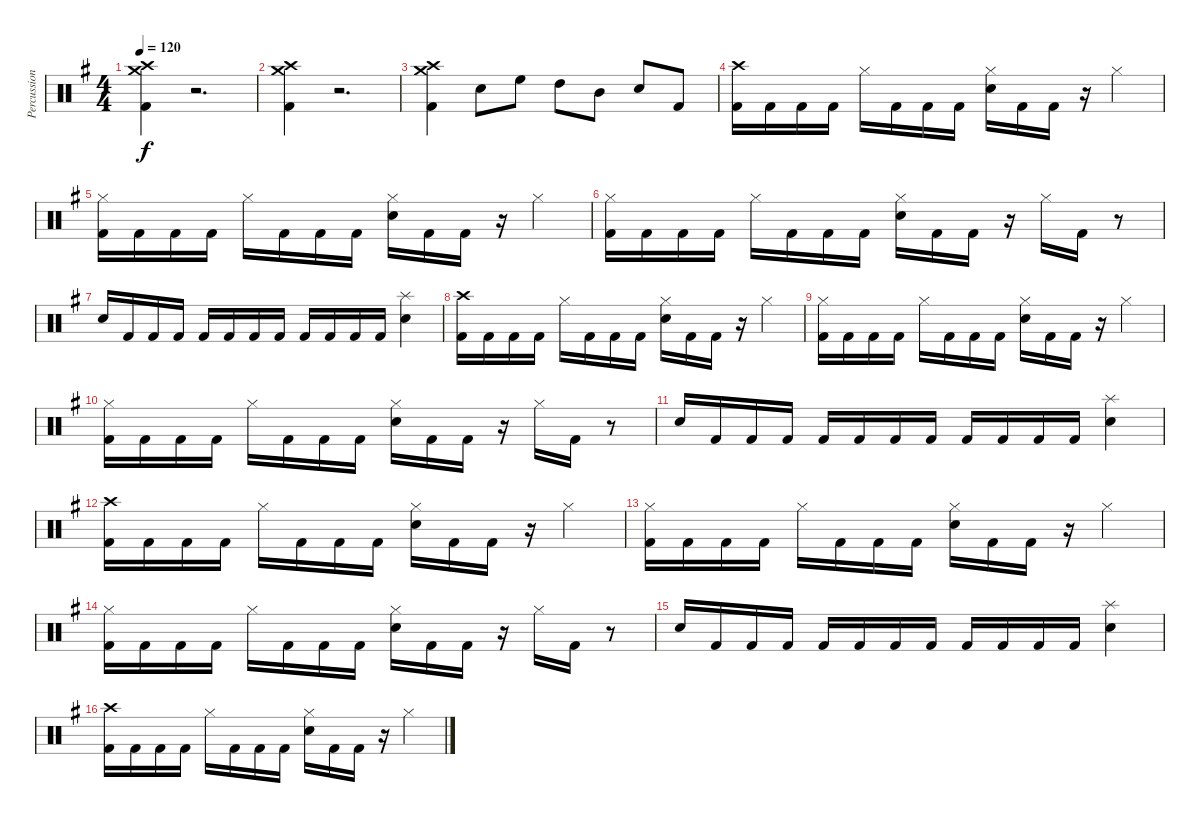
\track ("Percussion" "Percussion") {instrument percussion}
\staff {score}
\articulation defaults
\ts (4 4)
\tempo 120
\clef neutral
\ks g
("Crash high (hit)" "Crash medium (hit)" "Kick (hit) 2").4{dy f} r.2{d} |
("Crash high (hit)" "Crash medium (hit)" "Kick (hit) 2").4 r.2{d} |
("Crash high (hit)" "Crash medium (hit)" "Kick (hit) 2").4 "Snare (hit) 2".8 "High Floor Tom (hit)".8 "High Tom (hit)".8 "Mid Tom (hit)".8 "Snare (hit) 2".8 "Kick (hit) 2".8 |
("Crash high (hit)" "Kick (hit) 2").16 "Kick (hit) 2".16 "Kick (hit) 2".16 "Kick (hit) 2".16 "Hi-Hat (closed)".16 "Kick (hit) 2".16 "Kick (hit) 2".16 "Kick (hit) 2".16 ("Hi-Hat (closed)" "Snare (hit) 2").16 "Kick (hit) 2".16 "Kick (hit) 2".16 r.16 "Hi-Hat (closed)".4 |
("Hi-Hat (closed)" "Kick (hit) 2").16 "Kick (hit) 2".16 "Kick (hit) 2".16 "Kick (hit) 2".16 "Hi-Hat (closed)".16 "Kick (hit) 2".16 "Kick (hit) 2".16 "Kick (hit) 2".16 ("Hi-Hat (closed)" "Snare (hit) 2").16 "Kick (hit) 2".16 "Kick (hit) 2".16 r.16 "Hi-Hat (closed)".4 |
("Hi-Hat (closed)" "Kick (hit) 2").16 "Kick (hit) 2".16 "Kick (hit) 2".16 "Kick (hit) 2".16 "Hi-Hat (closed)".16 "Kick (hit) 2".16 "Kick (hit) 2".16 "Kick (hit) 2".16 ("Hi-Hat (closed)" "Snare (hit) 2").16 "Kick (hit) 2".16 "Kick (hit) 2".16 r.16 "Hi-Hat (closed)".16 "Kick (hit) 2".16 r.8 |
"Snare (hit) 2".16 "Kick (hit) 2".16 "Kick (hit) 2".16 "Kick (hit) 2".16 "Kick (hit) 2".16 "Kick (hit) 2".16 "Kick (hit) 2".16 "Kick (hit) 2".16 "Kick (hit) 2".16 "Kick (hit) 2".16 "Kick (hit) 2".16 "Kick (hit) 2".16 ("Splash (hit)" "Snare (hit) 2").4 |
("Crash high (hit)" "Kick (hit) 2").16 "Kick (hit) 2".16 "Kick (hit) 2".16 "Kick (hit) 2".16 "Hi-Hat (closed)".16 "Kick (hit) 2".16 "Kick (hit) 2".16 "Kick (hit) 2".16 ("Hi-Hat (closed)" "Snare (hit) 2").16 "Kick (hit) 2".16 "Kick (hit) 2".16 r.16 "Hi-Hat (closed)".4 |
("Hi-Hat (closed)" "Kick (hit) 2").16 "Kick (hit) 2".16 "Kick (hit) 2".16 "Kick (hit) 2".16 "Hi-Hat (closed)".16 "Kick (hit) 2".16 "Kick (hit) 2".16 "Kick (hit) 2".16 ("Hi-Hat (closed)" "Snare (hit) 2").16 "Kick (hit) 2".16 "Kick (hit) 2".16 r.16 "Hi-Hat (closed)".4 |
("Hi-Hat (closed)" "Kick (hit) 2").16 "Kick (hit) 2".16 "Kick (hit) 2".16 "Kick (hit) 2".16 "Hi-Hat (closed)".16 "Kick (hit) 2".16 "Kick (hit) 2".16 "Kick (hit) 2".16 ("Hi-Hat (closed)" "Snare (hit) 2").16 "Kick (hit) 2".16 "Kick (hit) 2".16 r.16 "Hi-Hat (closed)".16 "Kick (hit) 2".16 r.8 |
"Snare (hit) 2".16 "Kick (hit) 2".16 "Kick (hit) 2".16 "Kick (hit) 2".16 "Kick (hit) 2".16 "Kick (hit) 2".16 "Kick (hit) 2".16 "Kick (hit) 2".16 "Kick (hit) 2".16 "Kick (hit) 2".16 "Kick (hit) 2".16 "Kick (hit) 2".16 ("Splash (hit)" "Snare (hit) 2").4 |
("Crash high (hit)" "Kick (hit) 2").16 "Kick (hit) 2".16 "Kick (hit) 2".16 "Kick (hit) 2".16 "Hi-Hat (closed)".16 "Kick (hit) 2".16 "Kick (hit) 2".16 "Kick (hit) 2".16 ("Hi-Hat (closed)" "Snare (hit) 2").16 "Kick (hit) 2".16 "Kick (hit) 2".16 r.16 "Hi-Hat (closed)".4 |
("Hi-Hat (closed)" "Kick (hit) 2").16 "Kick (hit) 2".16 "Kick (hit) 2".16 "Kick (hit) 2".16 "Hi-Hat (closed)".16 "Kick (hit) 2".16 "Kick (hit) 2".16 "Kick (hit) 2".16 ("Hi-Hat (closed)" "Snare (hit) 2").16 "Kick (hit) 2".16 "Kick (hit) 2".16 r.16 "Hi-Hat (closed)".4 |
("Hi-Hat (closed)" "Kick (hit) 2").16 "Kick (hit) 2".16 "Kick (hit) 2".16 "Kick (hit) 2".16 "Hi-Hat (closed)".16 "Kick (hit) 2".16 "Kick (hit) 2".16 "Kick (hit) 2".16 ("Hi-Hat (closed)" "Snare (hit) 2").16 "Kick (hit) 2".16 "Kick (hit) 2".16 r.16 "Hi-Hat (closed)".16 "Kick (hit) 2".16 r.8 |
"Snare (hit) 2".16 "Kick (hit) 2".16 "Kick (hit) 2".16 "Kick (hit) 2".16 "Kick (hit) 2".16 "Kick (hit) 2".16 "Kick (hit) 2".16 "Kick (hit) 2".16 "Kick (hit) 2".16 "Kick (hit) 2".16 "Kick (hit) 2".16 "Kick (hit) 2".16 ("Splash (hit)" "Snare (hit) 2").4 |
("Crash high (hit)" "Kick (hit) 2").16 "Kick (hit) 2".16 "Kick (hit) 2".16 "Kick (hit) 2".16 "Hi-Hat (closed)".16 "Kick (hit) 2".16 "Kick (hit) 2".16 "Kick (hit) 2".16 ("Hi-Hat (closed)" "Snare (hit) 2").16 "Kick (hit) 2".16 "Kick (hit) 2".16 r.16 "Hi-Hat (closed)".4
